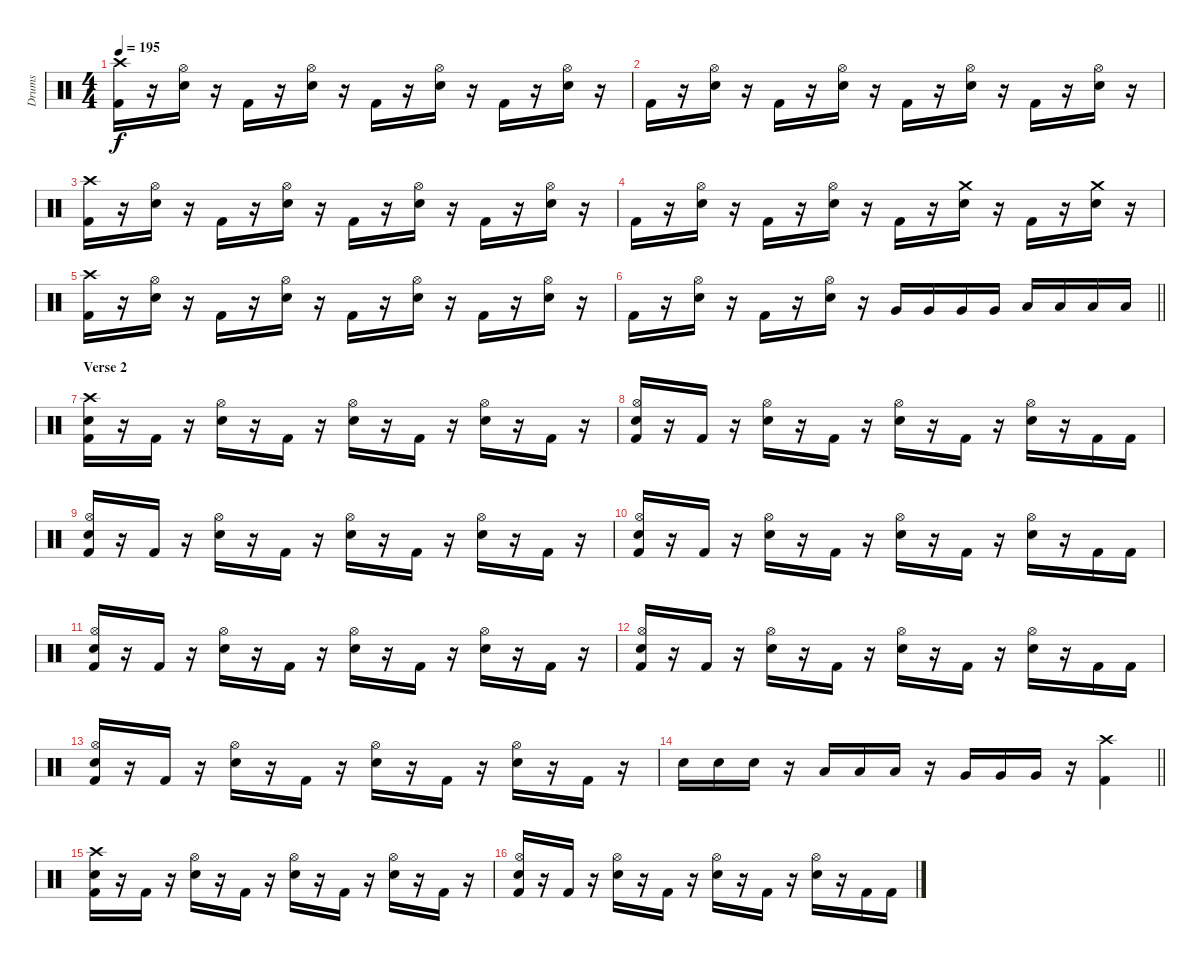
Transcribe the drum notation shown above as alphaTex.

\track ("Drums" "Drums") {instrument percussion}
\staff {score}
\articulation defaults
\ts (4 4)
\tempo 195
\clef neutral
\ks c
("Crash high (hit)" "Kick (hit) 2").16{dy f} r.16 ("Hi-Hat (open)" "Electric Snare (hit)").16 r.16 "Kick (hit) 2".16 r.16 ("Hi-Hat (open)" "Electric Snare (hit)").16 r.16 "Kick (hit) 2".16 r.16 ("Hi-Hat (open)" "Electric Snare (hit)").16 r.16 "Kick (hit) 2".16 r.16 ("Hi-Hat (open)" "Electric Snare (hit)").16 r.16 |
"Kick (hit) 2".16 r.16 ("Hi-Hat (open)" "Electric Snare (hit)").16 r.16 "Kick (hit) 2".16 r.16 ("Hi-Hat (open)" "Electric Snare (hit)").16 r.16 "Kick (hit) 2".16 r.16 ("Hi-Hat (open)" "Electric Snare (hit)").16 r.16 "Kick (hit) 2".16 r.16 ("Hi-Hat (open)" "Electric Snare (hit)").16 r.16 |
("Crash high (hit)" "Kick (hit) 2").16 r.16 ("Hi-Hat (open)" "Electric Snare (hit)").16 r.16 "Kick (hit) 2".16 r.16 ("Hi-Hat (open)" "Electric Snare (hit)").16 r.16 "Kick (hit) 2".16 r.16 ("Hi-Hat (open)" "Electric Snare (hit)").16 r.16 "Kick (hit) 2".16 r.16 ("Hi-Hat (open)" "Electric Snare (hit)").16 r.16 |
"Kick (hit) 2".16 r.16 ("Hi-Hat (open)" "Electric Snare (hit)").16 r.16 "Kick (hit) 2".16 r.16 ("Hi-Hat (open)" "Electric Snare (hit)").16 r.16 "Kick (hit) 2".16 r.16 ("Crash medium (hit)" "Electric Snare (hit)").16 r.16 "Kick (hit) 2".16 r.16 ("Crash medium (hit)" "Electric Snare (hit)").16 r.16 |
("Crash high (hit)" "Kick (hit) 2").16 r.16 ("Hi-Hat (open)" "Electric Snare (hit)").16 r.16 "Kick (hit) 2".16 r.16 ("Hi-Hat (open)" "Electric Snare (hit)").16 r.16 "Kick (hit) 2".16 r.16 ("Hi-Hat (open)" "Electric Snare (hit)").16 r.16 "Kick (hit) 2".16 r.16 ("Hi-Hat (open)" "Electric Snare (hit)").16 r.16 |
\barLineRight lightlight "Kick (hit) 2".16
r.16 ("Hi-Hat (open)" "Electric Snare (hit)").16 r.16 "Kick (hit) 2".16 r.16 ("Hi-Hat (open)" "Electric Snare (hit)").16 r.16 "Very Low Tom (hit)".16 "Very Low Tom (hit)".16 "Very Low Tom (hit)".16 "Very Low Tom (hit)".16 "Low Floor Tom (hit)".16 "Low Floor Tom (hit)".16 "Low Floor Tom (hit)".16 "Low Floor Tom (hit)".16 |
\section ("" "Verse 2")
("Crash high (hit)" "Electric Snare (hit)" "Kick (hit) 2").16 r.16 "Kick (hit) 2".16 r.16 ("Hi-Hat (open)" "Electric Snare (hit)").16 r.16 "Kick (hit) 2".16 r.16 ("Hi-Hat (open)" "Electric Snare (hit)").16 r.16 "Kick (hit) 2".16 r.16 ("Hi-Hat (open)" "Electric Snare (hit)").16 r.16 "Kick (hit) 2".16 r.16 |
("Hi-Hat (open)" "Electric Snare (hit)" "Kick (hit) 2").16 r.16 "Kick (hit) 2".16 r.16 ("Hi-Hat (open)" "Electric Snare (hit)").16 r.16 "Kick (hit) 2".16 r.16 ("Hi-Hat (open)" "Electric Snare (hit)").16 r.16 "Kick (hit) 2".16 r.16 ("Hi-Hat (open)" "Electric Snare (hit)").16 r.16 "Kick (hit) 2".16 "Kick (hit) 2".16 |
("Hi-Hat (open)" "Electric Snare (hit)" "Kick (hit) 2").16 r.16 "Kick (hit) 2".16 r.16 ("Hi-Hat (open)" "Electric Snare (hit)").16 r.16 "Kick (hit) 2".16 r.16 ("Hi-Hat (open)" "Electric Snare (hit)").16 r.16 "Kick (hit) 2".16 r.16 ("Hi-Hat (open)" "Electric Snare (hit)").16 r.16 "Kick (hit) 2".16 r.16 |
("Hi-Hat (open)" "Electric Snare (hit)" "Kick (hit) 2").16 r.16 "Kick (hit) 2".16 r.16 ("Hi-Hat (open)" "Electric Snare (hit)").16 r.16 "Kick (hit) 2".16 r.16 ("Hi-Hat (open)" "Electric Snare (hit)").16 r.16 "Kick (hit) 2".16 r.16 ("Hi-Hat (open)" "Electric Snare (hit)").16 r.16 "Kick (hit) 2".16 "Kick (hit) 2".16 |
("Hi-Hat (open)" "Electric Snare (hit)" "Kick (hit) 2").16 r.16 "Kick (hit) 2".16 r.16 ("Hi-Hat (open)" "Electric Snare (hit)").16 r.16 "Kick (hit) 2".16 r.16 ("Hi-Hat (open)" "Electric Snare (hit)").16 r.16 "Kick (hit) 2".16 r.16 ("Hi-Hat (open)" "Electric Snare (hit)").16 r.16 "Kick (hit) 2".16 r.16 |
("Hi-Hat (open)" "Electric Snare (hit)" "Kick (hit) 2").16 r.16 "Kick (hit) 2".16 r.16 ("Hi-Hat (open)" "Electric Snare (hit)").16 r.16 "Kick (hit) 2".16 r.16 ("Hi-Hat (open)" "Electric Snare (hit)").16 r.16 "Kick (hit) 2".16 r.16 ("Hi-Hat (open)" "Electric Snare (hit)").16 r.16 "Kick (hit) 2".16 "Kick (hit) 2".16 |
("Hi-Hat (open)" "Electric Snare (hit)" "Kick (hit) 2").16 r.16 "Kick (hit) 2".16 r.16 ("Hi-Hat (open)" "Electric Snare (hit)").16 r.16 "Kick (hit) 2".16 r.16 ("Hi-Hat (open)" "Electric Snare (hit)").16 r.16 "Kick (hit) 2".16 r.16 ("Hi-Hat (open)" "Electric Snare (hit)").16 r.16 "Kick (hit) 2".16 r.16 |
\barLineRight lightlight "Electric Snare (hit)".16 "Electric Snare (hit)".16 "Electric Snare (hit)".16
r.16 "Low Tom (hit)".16 "Low Tom (hit)".16 "Low Tom (hit)".16 r.16 "Very Low Tom (hit)".16 "Very Low Tom (hit)".16 "Very Low Tom (hit)".16 r.16 ("Crash high (hit)" "Kick (hit) 2").4 |
("Crash high (hit)" "Electric Snare (hit)" "Kick (hit) 2").16 r.16 "Kick (hit) 2".16 r.16 ("Hi-Hat (open)" "Electric Snare (hit)").16 r.16 "Kick (hit) 2".16 r.16 ("Hi-Hat (open)" "Electric Snare (hit)").16 r.16 "Kick (hit) 2".16 r.16 ("Hi-Hat (open)" "Electric Snare (hit)").16 r.16 "Kick (hit) 2".16 r.16 |
("Hi-Hat (open)" "Electric Snare (hit)" "Kick (hit) 2").16 r.16 "Kick (hit) 2".16 r.16 ("Hi-Hat (open)" "Electric Snare (hit)").16 r.16 "Kick (hit) 2".16 r.16 ("Hi-Hat (open)" "Electric Snare (hit)").16 r.16 "Kick (hit) 2".16 r.16 ("Hi-Hat (open)" "Electric Snare (hit)").16 r.16 "Kick (hit) 2".16 "Kick (hit) 2".16
